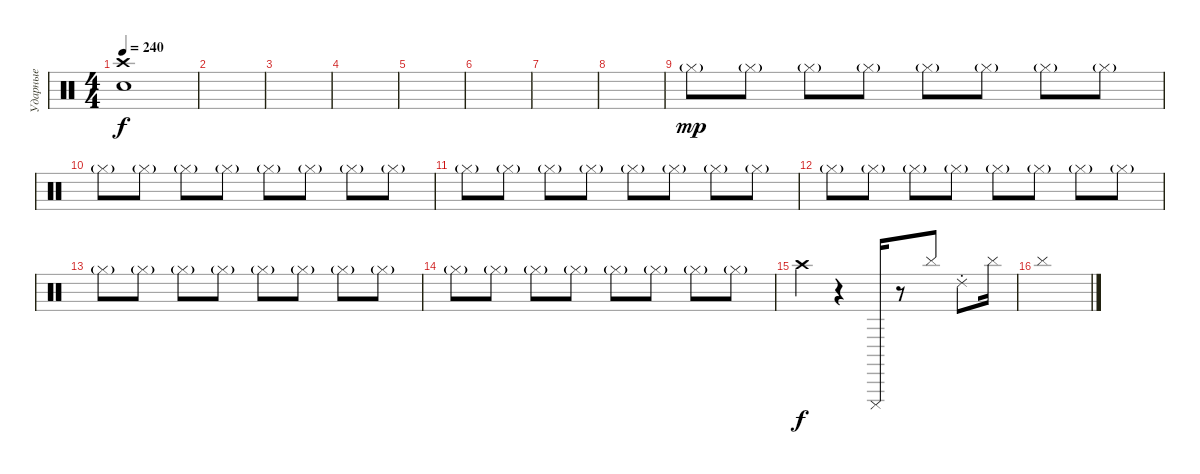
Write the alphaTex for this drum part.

\track ("Ударные" "Ударные") {instrument percussion}
\staff {score}
\articulation defaults
\ts (4 4)
\tempo 240
\clef neutral
\ks c
("Crash high (hit)" "Snare (hit) 2").1{dy f} |
|
|
|
|
|
|
|
"Hi-Hat (closed)"{g}.8{dy mp} "Hi-Hat (closed)"{g}.8 "Hi-Hat (closed)"{g}.8 "Hi-Hat (closed)"{g}.8 "Hi-Hat (closed)"{g}.8 "Hi-Hat (closed)"{g}.8 "Hi-Hat (closed)"{g}.8 "Hi-Hat (closed)"{g}.8 |
"Hi-Hat (closed)"{g}.8 "Hi-Hat (closed)"{g}.8 "Hi-Hat (closed)"{g}.8 "Hi-Hat (closed)"{g}.8 "Hi-Hat (closed)"{g}.8 "Hi-Hat (closed)"{g}.8 "Hi-Hat (closed)"{g}.8 "Hi-Hat (closed)"{g}.8 |
"Hi-Hat (closed)"{g}.8 "Hi-Hat (closed)"{g}.8 "Hi-Hat (closed)"{g}.8 "Hi-Hat (closed)"{g}.8 "Hi-Hat (closed)"{g}.8 "Hi-Hat (closed)"{g}.8 "Hi-Hat (closed)"{g}.8 "Hi-Hat (closed)"{g}.8 |
"Hi-Hat (closed)"{g}.8 "Hi-Hat (closed)"{g}.8 "Hi-Hat (closed)"{g}.8 "Hi-Hat (closed)"{g}.8 "Hi-Hat (closed)"{g}.8 "Hi-Hat (closed)"{g}.8 "Hi-Hat (closed)"{g}.8 "Hi-Hat (closed)"{g}.8 |
"Hi-Hat (closed)"{g}.8 "Hi-Hat (closed)"{g}.8 "Hi-Hat (closed)"{g}.8 "Hi-Hat (closed)"{g}.8 "Hi-Hat (closed)"{g}.8 "Hi-Hat (closed)"{g}.8 "Hi-Hat (closed)"{g}.8 "Hi-Hat (closed)"{g}.8 |
"Hi-Hat (closed)"{g}.8 "Hi-Hat (closed)"{g}.8 "Hi-Hat (closed)"{g}.8 "Hi-Hat (closed)"{g}.8 "Hi-Hat (closed)"{g}.8 "Hi-Hat (closed)"{g}.8 "Hi-Hat (closed)"{g}.8 "Hi-Hat (closed)"{g}.8 |
"Crash high (hit)".4{dy f} r.4 "Cuica (mute)".16 r.8 "Cymbal (hit)".8 "Ride (choke) 2".8 "Cymbal (hit)".16 |
"Cymbal (hit)".1
